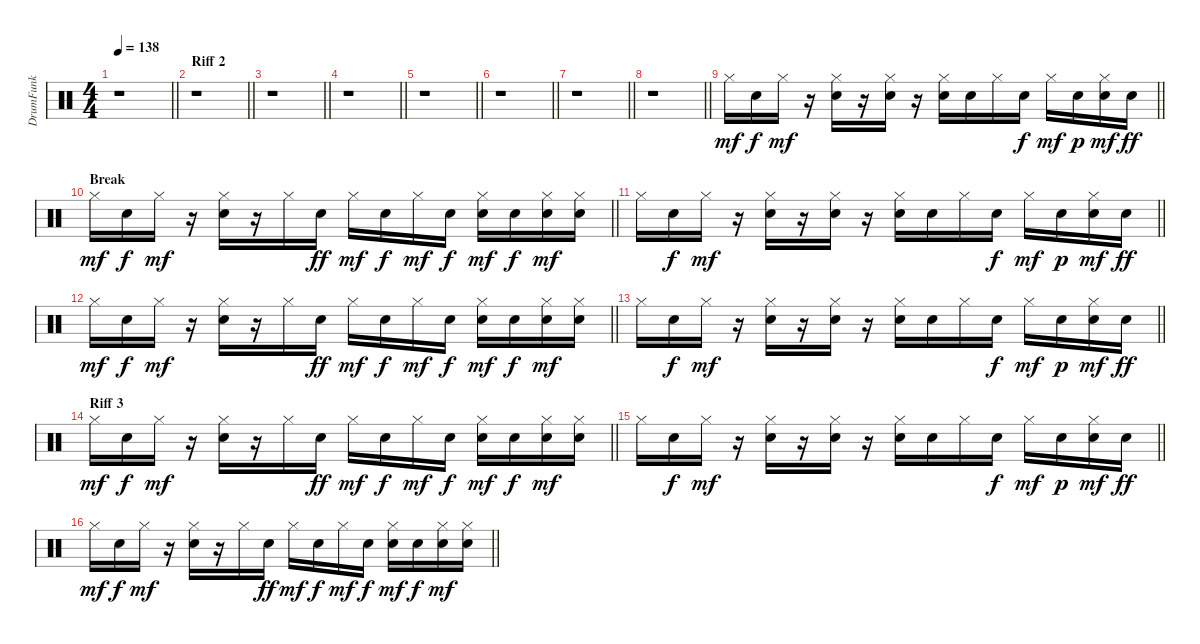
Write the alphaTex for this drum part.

\track ("DrumFunk" "DrumFunk") {instrument percussion}
\staff {score}
\articulation defaults
\ts (4 4)
\tempo 138
\clef neutral
\barLineRight lightlight
\ks c
r.1{dy ff} |
\section ("" "Riff 2")
\barLineRight lightlight
r.1 |
\barLineRight lightlight
r.1 |
\barLineRight lightlight
r.1 |
\barLineRight lightlight
r.1 |
\barLineRight lightlight
r.1 |
\barLineRight lightlight
r.1 |
\barLineRight lightlight
r.1 |
\barLineRight lightlight "Hi-Hat (closed)".16{dy mf} "Snare (hit) 2".16{dy f} "Hi-Hat (closed)".16{dy mf}
r.16 ("Snare (hit) 2" "Hi-Hat (closed)").16 r.16 ("Hand Clap (hit)" "Hi-Hat (closed)").16 r.16 ("Snare (hit) 2" "Hi-Hat (closed)").16 "Snare (hit) 2".16 "Hi-Hat (closed)".16 "Snare (hit) 2".16{dy f} "Hi-Hat (closed)".16{dy mf} "Snare (hit) 2".16{dy p} ("Snare (hit) 2" "Hi-Hat (closed)").16{dy mf} "Snare (hit) 2".16{dy ff} |
\section ("" "Break")
\barLineRight lightlight "Hi-Hat (closed)".16{dy mf} "Snare (hit) 2".16{dy f} "Hi-Hat (closed)".16{dy mf}
r.16 ("Snare (hit) 2" "Hi-Hat (closed)").16 r.16 "Hi-Hat (closed)".16 "Snare (hit) 2".16{dy ff} "Hi-Hat (closed)".16{dy mf} "Snare (hit) 2".16{dy f} "Hi-Hat (closed)".16{dy mf} "Electric Snare (hit)".16{dy f} ("Snare (hit) 2" "Hi-Hat (closed)").16{dy mf} "Electric Snare (hit)".16{dy f} ("Snare (hit) 2" "Hi-Hat (closed)").16{dy mf} ("Snare (hit) 2" "Hi-Hat (closed)").16 |
\barLineRight lightlight "Hi-Hat (closed)".16 "Snare (hit) 2".16{dy f} "Hi-Hat (closed)".16{dy mf}
r.16 ("Snare (hit) 2" "Hi-Hat (closed)").16 r.16 ("Electric Snare (hit)" "Hi-Hat (closed)").16 r.16 ("Snare (hit) 2" "Hi-Hat (closed)").16 "Snare (hit) 2".16 "Hi-Hat (closed)".16 "Snare (hit) 2".16{dy f} "Hi-Hat (closed)".16{dy mf} "Snare (hit) 2".16{dy p} ("Snare (hit) 2" "Hi-Hat (closed)").16{dy mf} "Snare (hit) 2".16{dy ff} |
\barLineRight lightlight "Hi-Hat (closed)".16{dy mf} "Snare (hit) 2".16{dy f} "Hi-Hat (closed)".16{dy mf}
r.16 ("Snare (hit) 2" "Hi-Hat (closed)").16 r.16 "Hi-Hat (closed)".16 "Snare (hit) 2".16{dy ff} "Hi-Hat (closed)".16{dy mf} "Snare (hit) 2".16{dy f} "Hi-Hat (closed)".16{dy mf} "Electric Snare (hit)".16{dy f} ("Snare (hit) 2" "Hi-Hat (closed)").16{dy mf} "Electric Snare (hit)".16{dy f} ("Snare (hit) 2" "Hi-Hat (closed)").16{dy mf} ("Snare (hit) 2" "Hi-Hat (closed)").16 |
\barLineRight lightlight "Hi-Hat (closed)".16 "Snare (hit) 2".16{dy f} "Hi-Hat (closed)".16{dy mf}
r.16 ("Snare (hit) 2" "Hi-Hat (closed)").16 r.16 ("Electric Snare (hit)" "Hi-Hat (closed)").16 r.16 ("Snare (hit) 2" "Hi-Hat (closed)").16 "Snare (hit) 2".16 "Hi-Hat (closed)".16 "Snare (hit) 2".16{dy f} "Hi-Hat (closed)".16{dy mf} "Snare (hit) 2".16{dy p} ("Snare (hit) 2" "Hi-Hat (closed)").16{dy mf} "Snare (hit) 2".16{dy ff} |
\section ("" "Riff 3")
\barLineRight lightlight "Hi-Hat (closed)".16{dy mf} "Snare (hit) 2".16{dy f} "Hi-Hat (closed)".16{dy mf}
r.16 ("Snare (hit) 2" "Hi-Hat (closed)").16 r.16 "Hi-Hat (closed)".16 "Snare (hit) 2".16{dy ff} "Hi-Hat (closed)".16{dy mf} "Snare (hit) 2".16{dy f} "Hi-Hat (closed)".16{dy mf} "Electric Snare (hit)".16{dy f} ("Snare (hit) 2" "Hi-Hat (closed)").16{dy mf} "Electric Snare (hit)".16{dy f} ("Snare (hit) 2" "Hi-Hat (closed)").16{dy mf} ("Snare (hit) 2" "Hi-Hat (closed)").16 |
\barLineRight lightlight "Hi-Hat (closed)".16 "Snare (hit) 2".16{dy f} "Hi-Hat (closed)".16{dy mf}
r.16 ("Snare (hit) 2" "Hi-Hat (closed)").16 r.16 ("Electric Snare (hit)" "Hi-Hat (closed)").16 r.16 ("Snare (hit) 2" "Hi-Hat (closed)").16 "Snare (hit) 2".16 "Hi-Hat (closed)".16 "Snare (hit) 2".16{dy f} "Hi-Hat (closed)".16{dy mf} "Snare (hit) 2".16{dy p} ("Snare (hit) 2" "Hi-Hat (closed)").16{dy mf} "Snare (hit) 2".16{dy ff} |
\barLineRight lightlight "Hi-Hat (closed)".16{dy mf} "Snare (hit) 2".16{dy f} "Hi-Hat (closed)".16{dy mf}
r.16 ("Snare (hit) 2" "Hi-Hat (closed)").16 r.16 "Hi-Hat (closed)".16 "Snare (hit) 2".16{dy ff} "Hi-Hat (closed)".16{dy mf} "Snare (hit) 2".16{dy f} "Hi-Hat (closed)".16{dy mf} "Electric Snare (hit)".16{dy f} ("Snare (hit) 2" "Hi-Hat (closed)").16{dy mf} "Electric Snare (hit)".16{dy f} ("Snare (hit) 2" "Hi-Hat (closed)").16{dy mf} ("Snare (hit) 2" "Hi-Hat (closed)").16
